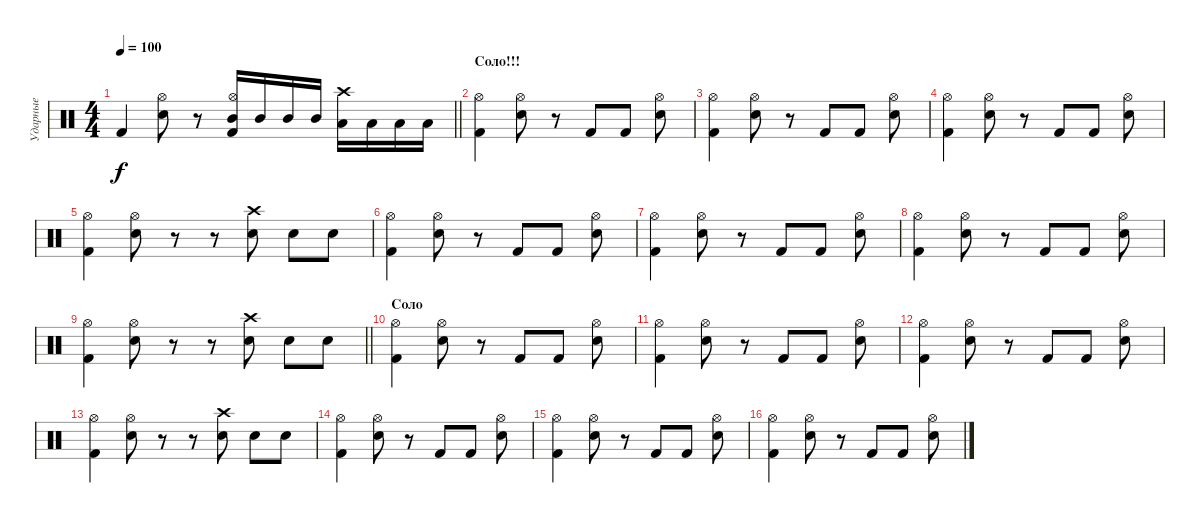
\track ("Ударные" "Ударные") {instrument percussion}
\staff {score}
\articulation defaults
\ts (4 4)
\tempo 100
\clef neutral
\barLineRight lightlight
\ks c "Kick (hit) 2".4{dy f}
("Snare (hit) 2" "Hi-Hat (open)").8 r.8 ("Mid Tom (hit)" "Kick (hit) 2" "Hi-Hat (open)").16 "Mid Tom (hit)".16 "Mid Tom (hit)".16 "Mid Tom (hit)".16 ("Low Tom (hit)" "Crash high (hit)").16 "Low Tom (hit)".16 "Low Tom (hit)".16 "Low Tom (hit)".16 |
\section ("" "Соло!!!")
("Kick (hit) 2" "Hi-Hat (open)").4 ("Snare (hit) 2" "Hi-Hat (open)").8 r.8 "Kick (hit) 2".8 "Kick (hit) 2".8 ("Snare (hit) 2" "Hi-Hat (open)").8 |
("Kick (hit) 2" "Hi-Hat (open)").4 ("Snare (hit) 2" "Hi-Hat (open)").8 r.8 "Kick (hit) 2".8 "Kick (hit) 2".8 ("Snare (hit) 2" "Hi-Hat (open)").8 |
("Kick (hit) 2" "Hi-Hat (open)").4 ("Snare (hit) 2" "Hi-Hat (open)").8 r.8 "Kick (hit) 2".8 "Kick (hit) 2".8 ("Snare (hit) 2" "Hi-Hat (open)").8 |
("Kick (hit) 2" "Hi-Hat (open)").4 ("Snare (hit) 2" "Hi-Hat (open)").8 r.8 r.8 ("Snare (hit) 2" "Crash high (hit)").8 "Snare (hit) 2".8 "Snare (hit) 2".8 |
("Kick (hit) 2" "Hi-Hat (open)").4 ("Snare (hit) 2" "Hi-Hat (open)").8 r.8 "Kick (hit) 2".8 "Kick (hit) 2".8 ("Snare (hit) 2" "Hi-Hat (open)").8 |
("Kick (hit) 2" "Hi-Hat (open)").4 ("Snare (hit) 2" "Hi-Hat (open)").8 r.8 "Kick (hit) 2".8 "Kick (hit) 2".8 ("Snare (hit) 2" "Hi-Hat (open)").8 |
("Kick (hit) 2" "Hi-Hat (open)").4 ("Snare (hit) 2" "Hi-Hat (open)").8 r.8 "Kick (hit) 2".8 "Kick (hit) 2".8 ("Snare (hit) 2" "Hi-Hat (open)").8 |
\barLineRight lightlight
("Kick (hit) 2" "Hi-Hat (open)").4 ("Snare (hit) 2" "Hi-Hat (open)").8 r.8 r.8 ("Snare (hit) 2" "Crash high (hit)").8 "Snare (hit) 2".8 "Snare (hit) 2".8 |
\section ("" "Соло")
("Kick (hit) 2" "Hi-Hat (open)").4 ("Snare (hit) 2" "Hi-Hat (open)").8 r.8 "Kick (hit) 2".8 "Kick (hit) 2".8 ("Snare (hit) 2" "Hi-Hat (open)").8 |
("Kick (hit) 2" "Hi-Hat (open)").4 ("Snare (hit) 2" "Hi-Hat (open)").8 r.8 "Kick (hit) 2".8 "Kick (hit) 2".8 ("Snare (hit) 2" "Hi-Hat (open)").8 |
("Kick (hit) 2" "Hi-Hat (open)").4 ("Snare (hit) 2" "Hi-Hat (open)").8 r.8 "Kick (hit) 2".8 "Kick (hit) 2".8 ("Snare (hit) 2" "Hi-Hat (open)").8 |
("Kick (hit) 2" "Hi-Hat (open)").4 ("Snare (hit) 2" "Hi-Hat (open)").8 r.8 r.8 ("Snare (hit) 2" "Crash high (hit)").8 "Snare (hit) 2".8 "Snare (hit) 2".8 |
("Kick (hit) 2" "Hi-Hat (open)").4 ("Snare (hit) 2" "Hi-Hat (open)").8 r.8 "Kick (hit) 2".8 "Kick (hit) 2".8 ("Snare (hit) 2" "Hi-Hat (open)").8 |
("Kick (hit) 2" "Hi-Hat (open)").4 ("Snare (hit) 2" "Hi-Hat (open)").8 r.8 "Kick (hit) 2".8 "Kick (hit) 2".8 ("Snare (hit) 2" "Hi-Hat (open)").8 |
("Kick (hit) 2" "Hi-Hat (open)").4 ("Snare (hit) 2" "Hi-Hat (open)").8 r.8 "Kick (hit) 2".8 "Kick (hit) 2".8 ("Snare (hit) 2" "Hi-Hat (open)").8
